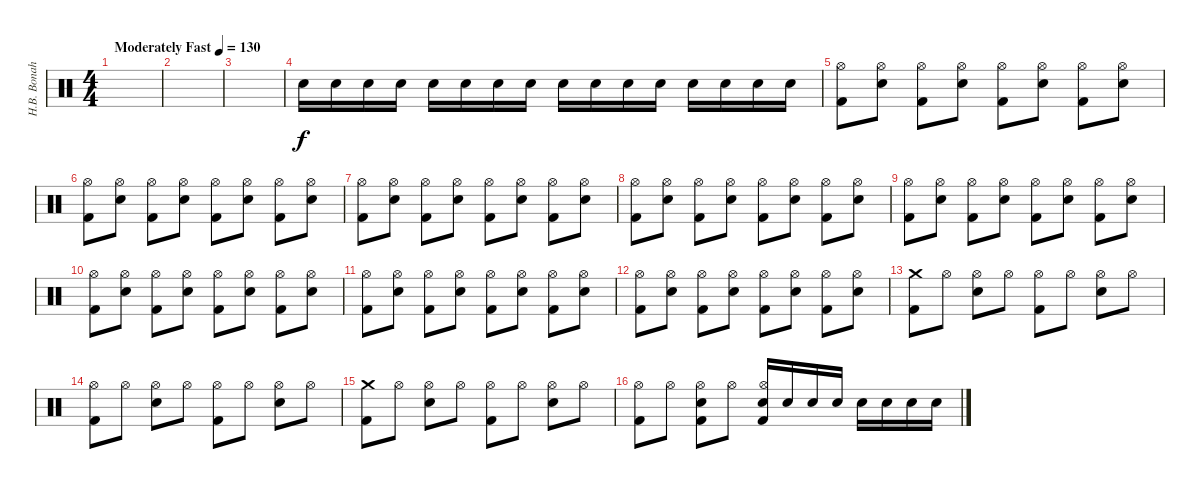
\track ("H.B. Bonah" "H.B. Bonah") {instrument percussion}
\staff {score}
\articulation defaults
\ts (4 4)
\tempo (130 "Moderately Fast")
\clef neutral
\ks c
|
|
|
"Electric Snare (hit)".16 "Electric Snare (hit)".16 "Electric Snare (hit)".16 "Electric Snare (hit)".16 "Electric Snare (hit)".16 "Electric Snare (hit)".16 "Electric Snare (hit)".16 "Electric Snare (hit)".16 "Electric Snare (hit)".16 "Electric Snare (hit)".16 "Electric Snare (hit)".16 "Electric Snare (hit)".16 "Electric Snare (hit)".16 "Electric Snare (hit)".16 "Electric Snare (hit)".16 "Electric Snare (hit)".16 |
("Hi-Hat (open)" "Kick (hit) 2").8 ("Hi-Hat (open)" "Electric Snare (hit)").8 ("Hi-Hat (open)" "Kick (hit) 2").8 ("Hi-Hat (open)" "Electric Snare (hit)").8 ("Hi-Hat (open)" "Kick (hit) 2").8 ("Hi-Hat (open)" "Electric Snare (hit)").8 ("Hi-Hat (open)" "Kick (hit) 2").8 ("Hi-Hat (open)" "Electric Snare (hit)").8 |
("Hi-Hat (open)" "Kick (hit) 2").8 ("Hi-Hat (open)" "Electric Snare (hit)").8 ("Hi-Hat (open)" "Kick (hit) 2").8 ("Hi-Hat (open)" "Electric Snare (hit)").8 ("Hi-Hat (open)" "Kick (hit) 2").8 ("Hi-Hat (open)" "Electric Snare (hit)").8 ("Hi-Hat (open)" "Kick (hit) 2").8 ("Hi-Hat (open)" "Electric Snare (hit)").8 |
("Hi-Hat (open)" "Kick (hit) 2").8 ("Hi-Hat (open)" "Electric Snare (hit)").8 ("Hi-Hat (open)" "Kick (hit) 2").8 ("Hi-Hat (open)" "Electric Snare (hit)").8 ("Hi-Hat (open)" "Kick (hit) 2").8 ("Hi-Hat (open)" "Electric Snare (hit)").8 ("Hi-Hat (open)" "Kick (hit) 2").8 ("Hi-Hat (open)" "Electric Snare (hit)").8 |
("Hi-Hat (open)" "Kick (hit) 2").8 ("Hi-Hat (open)" "Electric Snare (hit)").8 ("Hi-Hat (open)" "Kick (hit) 2").8 ("Hi-Hat (open)" "Electric Snare (hit)").8 ("Hi-Hat (open)" "Kick (hit) 2").8 ("Hi-Hat (open)" "Electric Snare (hit)").8 ("Hi-Hat (open)" "Kick (hit) 2").8 ("Hi-Hat (open)" "Electric Snare (hit)").8 |
("Hi-Hat (open)" "Kick (hit) 2").8 ("Hi-Hat (open)" "Electric Snare (hit)").8 ("Hi-Hat (open)" "Kick (hit) 2").8 ("Hi-Hat (open)" "Electric Snare (hit)").8 ("Hi-Hat (open)" "Kick (hit) 2").8 ("Hi-Hat (open)" "Electric Snare (hit)").8 ("Hi-Hat (open)" "Kick (hit) 2").8 ("Hi-Hat (open)" "Electric Snare (hit)").8 |
("Hi-Hat (open)" "Kick (hit) 2").8 ("Hi-Hat (open)" "Electric Snare (hit)").8 ("Hi-Hat (open)" "Kick (hit) 2").8 ("Hi-Hat (open)" "Electric Snare (hit)").8 ("Hi-Hat (open)" "Kick (hit) 2").8 ("Hi-Hat (open)" "Electric Snare (hit)").8 ("Hi-Hat (open)" "Kick (hit) 2").8 ("Hi-Hat (open)" "Electric Snare (hit)").8 |
("Hi-Hat (open)" "Kick (hit) 2").8 ("Hi-Hat (open)" "Electric Snare (hit)").8 ("Hi-Hat (open)" "Kick (hit) 2").8 ("Hi-Hat (open)" "Electric Snare (hit)").8 ("Hi-Hat (open)" "Kick (hit) 2").8 ("Hi-Hat (open)" "Electric Snare (hit)").8 ("Hi-Hat (open)" "Kick (hit) 2").8 ("Hi-Hat (open)" "Electric Snare (hit)").8 |
("Hi-Hat (open)" "Kick (hit) 2").8 ("Hi-Hat (open)" "Electric Snare (hit)").8 ("Hi-Hat (open)" "Kick (hit) 2").8 ("Hi-Hat (open)" "Electric Snare (hit)").8 ("Hi-Hat (open)" "Kick (hit) 2").8 ("Hi-Hat (open)" "Electric Snare (hit)").8 ("Hi-Hat (open)" "Kick (hit) 2").8 ("Hi-Hat (open)" "Electric Snare (hit)").8 |
("Crash medium (hit)" "Kick (hit) 2").8 "Hi-Hat (open)".8 ("Hi-Hat (open)" "Electric Snare (hit)").8 "Hi-Hat (open)".8 ("Hi-Hat (open)" "Kick (hit) 2").8 "Hi-Hat (open)".8 ("Hi-Hat (open)" "Electric Snare (hit)").8 "Hi-Hat (open)".8 |
("Hi-Hat (open)" "Kick (hit) 2").8 "Hi-Hat (open)".8 ("Hi-Hat (open)" "Electric Snare (hit)").8 "Hi-Hat (open)".8 ("Hi-Hat (open)" "Kick (hit) 2").8 "Hi-Hat (open)".8 ("Hi-Hat (open)" "Electric Snare (hit)").8 "Hi-Hat (open)".8 |
("Crash medium (hit)" "Kick (hit) 2").8 "Hi-Hat (open)".8 ("Hi-Hat (open)" "Electric Snare (hit)").8 "Hi-Hat (open)".8 ("Hi-Hat (open)" "Kick (hit) 2").8 "Hi-Hat (open)".8 ("Hi-Hat (open)" "Electric Snare (hit)").8 "Hi-Hat (open)".8 |
("Hi-Hat (open)" "Kick (hit) 2").8 "Hi-Hat (open)".8 ("Hi-Hat (open)" "Electric Snare (hit)" "Kick (hit) 2").8 "Hi-Hat (open)".8 ("Hi-Hat (open)" "Electric Snare (hit)" "Kick (hit) 2").16 "Electric Snare (hit)".16 "Electric Snare (hit)".16 "Electric Snare (hit)".16 "Electric Snare (hit)".16 "Electric Snare (hit)".16 "Electric Snare (hit)".16 "Electric Snare (hit)".16
